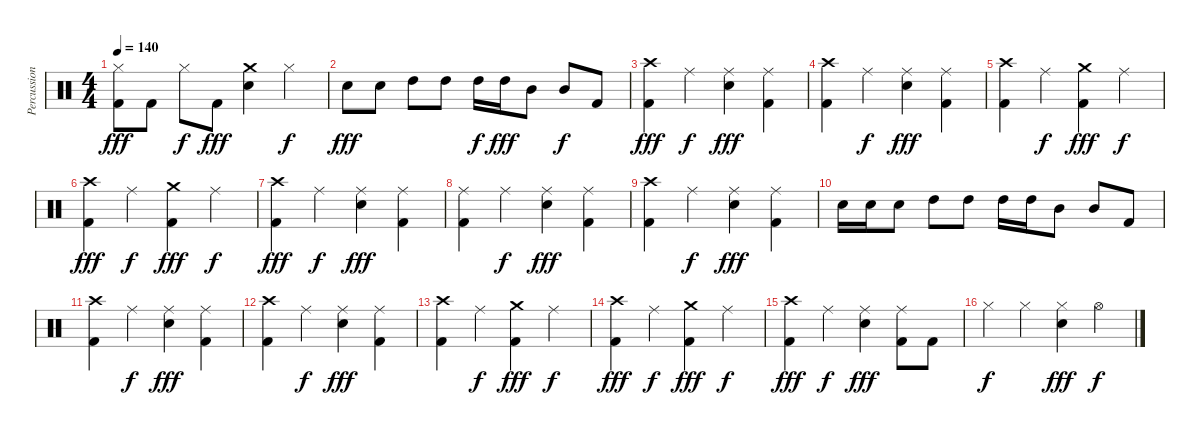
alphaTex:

\track ("Percussion" "Percussion") {instrument percussion}
\staff {score}
\articulation defaults
\ts (4 4)
\tempo 140
\clef neutral
\ks c
("Hi-Hat (closed)" "Kick (hit) 2").8{dy fff} "Kick (hit) 2".8 "Hi-Hat (closed)".8{dy f} "Kick (hit) 2".8{dy fff} ("Crash medium (hit)" "Electric Snare (hit)").4 "Hi-Hat (closed)".4{dy f} |
"Electric Snare (hit)".8{dy fff} "Electric Snare (hit)".8 "High Tom (hit)".8 "High Tom (hit)".8 "High Tom (hit)".16{dy f} "High Tom (hit)".16{dy fff} "Mid Tom (hit)".8 "Mid Tom (hit)".8{dy f} "Kick (hit) 2".8 |
("Crash high (hit)" "Kick (hit) 2").4{dy fff} "Ride (middle)".4{dy f} ("Ride (middle)" "Electric Snare (hit)").4{dy fff} ("Ride (middle)" "Kick (hit) 2").4 |
("Crash high (hit)" "Kick (hit) 2").4 "Ride (middle)".4{dy f} ("Ride (middle)" "Electric Snare (hit)").4{dy fff} ("Ride (middle)" "Kick (hit) 2").4 |
("Crash high (hit)" "Kick (hit) 2").4 "Ride (middle)".4{dy f} ("Crash medium (hit)" "Kick (hit) 2").4{dy fff} "Ride (middle)".4{dy f} |
("Crash high (hit)" "Kick (hit) 2").4{dy fff} "Ride (middle)".4{dy f} ("Crash medium (hit)" "Kick (hit) 2").4{dy fff} "Ride (middle)".4{dy f} |
("Crash high (hit)" "Kick (hit) 2").4{dy fff} "Ride (middle)".4{dy f} ("Ride (middle)" "Electric Snare (hit)").4{dy fff} ("Ride (middle)" "Kick (hit) 2").4 |
("Ride (middle)" "Kick (hit) 2").4 "Ride (middle)".4{dy f} ("Ride (middle)" "Electric Snare (hit)").4{dy fff} ("Ride (middle)" "Kick (hit) 2").4 |
("Crash high (hit)" "Kick (hit) 2").4 "Ride (middle)".4{dy f} ("Ride (middle)" "Electric Snare (hit)").4{dy fff} ("Ride (middle)" "Kick (hit) 2").4 |
"Electric Snare (hit)".16 "Electric Snare (hit)".16 "Electric Snare (hit)".8 "High Tom (hit)".8 "High Tom (hit)".8 "High Tom (hit)".16 "High Tom (hit)".16 "Mid Tom (hit)".8 "Mid Tom (hit)".8 "Kick (hit) 2".8 |
("Crash high (hit)" "Kick (hit) 2").4 "Ride (middle)".4{dy f} ("Ride (middle)" "Electric Snare (hit)").4{dy fff} ("Ride (middle)" "Kick (hit) 2").4 |
("Crash high (hit)" "Kick (hit) 2").4 "Ride (middle)".4{dy f} ("Ride (middle)" "Electric Snare (hit)").4{dy fff} ("Ride (middle)" "Kick (hit) 2").4 |
("Crash high (hit)" "Kick (hit) 2").4 "Ride (middle)".4{dy f} ("Crash medium (hit)" "Kick (hit) 2").4{dy fff} "Ride (middle)".4{dy f} |
("Crash high (hit)" "Kick (hit) 2").4{dy fff} "Ride (middle)".4{dy f} ("Crash medium (hit)" "Kick (hit) 2").4{dy fff} "Ride (middle)".4{dy f} |
("Crash high (hit)" "Kick (hit) 2").4{dy fff} "Ride (middle)".4{dy f} ("Ride (middle)" "Electric Snare (hit)").4{dy fff} ("Ride (middle)" "Kick (hit) 2").8 "Kick (hit) 2".8 |
"Hi-Hat (closed)".4{dy f} "Hi-Hat (closed)".4 ("Hi-Hat (closed)" "Electric Snare (hit)").4{dy fff} "Hi-Hat (open)".4{dy f}
